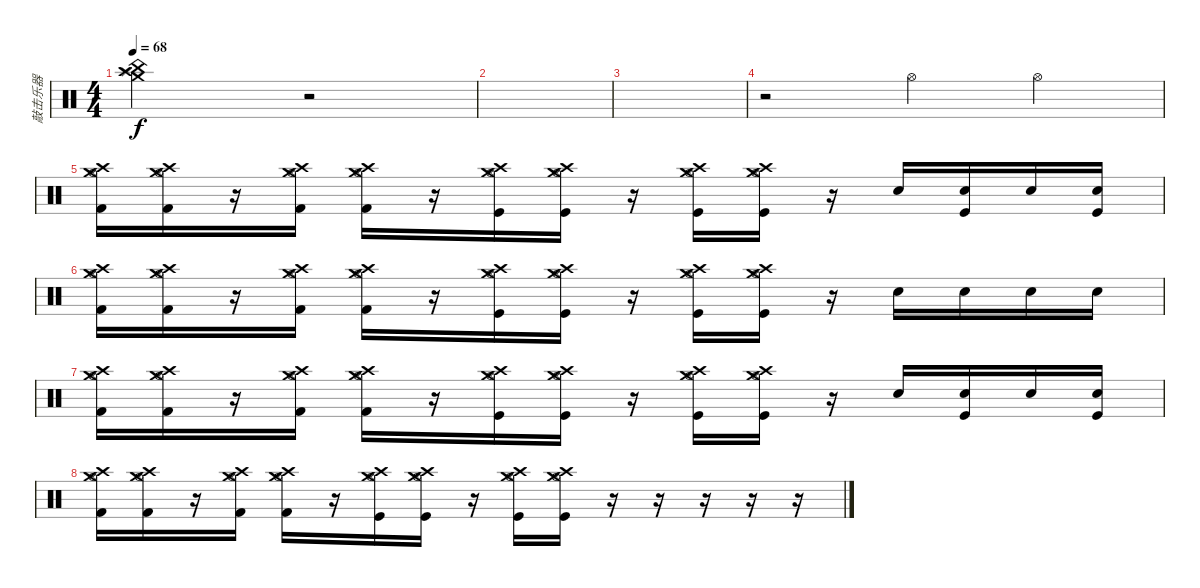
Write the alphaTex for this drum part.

\track ("敲击乐器" "敲击乐器") {instrument percussion}
\staff {score}
\articulation defaults
\ts (4 4)
\tempo 68
\clef neutral
\ks c
("Crash high (hit)" "China (hit)" "Splash (hit)" "Crash medium (hit)").2{dy f} r.2 |
|
|
r.2 "Hi-Hat (open)".4 "Hi-Hat (open)".4 |
("Crash medium (hit)" "Crash high (hit)" "Hi-Hat (open)" "Kick (hit) 2").16 ("Crash medium (hit)" "Crash high (hit)" "Hi-Hat (open)" "Kick (hit) 2").16 r.16 ("Crash medium (hit)" "Crash high (hit)" "Hi-Hat (open)" "Kick (hit) 2").16 ("Crash medium (hit)" "Crash high (hit)" "Hi-Hat (open)" "Kick (hit) 2").16 r.16 ("Crash medium (hit)" "Crash high (hit)" "Hi-Hat (open)" "Kick (hit)").16 ("Crash medium (hit)" "Crash high (hit)" "Hi-Hat (open)" "Kick (hit)").16 r.16 ("Crash medium (hit)" "Crash high (hit)" "Hi-Hat (open)" "Kick (hit)").16 ("Crash medium (hit)" "Crash high (hit)" "Hi-Hat (open)" "Kick (hit)").16 r.16 "Electric Snare (hit)".16 ("Kick (hit)" "Snare (hit) 2").16 "Electric Snare (hit)".16 ("Kick (hit)" "Snare (hit) 2").16 |
("Crash medium (hit)" "Crash high (hit)" "Hi-Hat (open)" "Kick (hit) 2").16 ("Crash medium (hit)" "Crash high (hit)" "Hi-Hat (open)" "Kick (hit) 2").16 r.16 ("Crash medium (hit)" "Crash high (hit)" "Hi-Hat (open)" "Kick (hit) 2").16 ("Crash medium (hit)" "Crash high (hit)" "Hi-Hat (open)" "Kick (hit) 2").16 r.16 ("Crash medium (hit)" "Crash high (hit)" "Hi-Hat (open)" "Kick (hit)").16 ("Crash medium (hit)" "Crash high (hit)" "Hi-Hat (open)" "Kick (hit)").16 r.16 ("Crash medium (hit)" "Crash high (hit)" "Hi-Hat (open)" "Kick (hit)").16 ("Crash medium (hit)" "Crash high (hit)" "Hi-Hat (open)" "Kick (hit)").16 r.16 "Electric Snare (hit)".16 "Electric Snare (hit)".16 "Electric Snare (hit)".16 "Electric Snare (hit)".16 |
("Crash medium (hit)" "Crash high (hit)" "Hi-Hat (open)" "Kick (hit) 2").16 ("Crash medium (hit)" "Crash high (hit)" "Hi-Hat (open)" "Kick (hit) 2").16 r.16 ("Crash medium (hit)" "Crash high (hit)" "Hi-Hat (open)" "Kick (hit) 2").16 ("Crash medium (hit)" "Crash high (hit)" "Hi-Hat (open)" "Kick (hit) 2").16 r.16 ("Crash medium (hit)" "Crash high (hit)" "Hi-Hat (open)" "Kick (hit)").16 ("Crash medium (hit)" "Crash high (hit)" "Hi-Hat (open)" "Kick (hit)").16 r.16 ("Crash medium (hit)" "Crash high (hit)" "Hi-Hat (open)" "Kick (hit)").16 ("Crash medium (hit)" "Crash high (hit)" "Hi-Hat (open)" "Kick (hit)").16 r.16 "Electric Snare (hit)".16 ("Kick (hit)" "Snare (hit) 2").16 "Electric Snare (hit)".16 ("Kick (hit)" "Snare (hit) 2").16 |
("Crash medium (hit)" "Crash high (hit)" "Hi-Hat (open)" "Kick (hit) 2").16 ("Crash medium (hit)" "Crash high (hit)" "Hi-Hat (open)" "Kick (hit) 2").16 r.16 ("Crash medium (hit)" "Crash high (hit)" "Hi-Hat (open)" "Kick (hit) 2").16 ("Crash medium (hit)" "Crash high (hit)" "Hi-Hat (open)" "Kick (hit) 2").16 r.16 ("Crash medium (hit)" "Crash high (hit)" "Hi-Hat (open)" "Kick (hit)").16 ("Crash medium (hit)" "Crash high (hit)" "Hi-Hat (open)" "Kick (hit)").16 r.16 ("Crash medium (hit)" "Crash high (hit)" "Hi-Hat (open)" "Kick (hit)").16 ("Crash medium (hit)" "Crash high (hit)" "Hi-Hat (open)" "Kick (hit)").16 r.16 r.16 r.16 r.16 r.16
